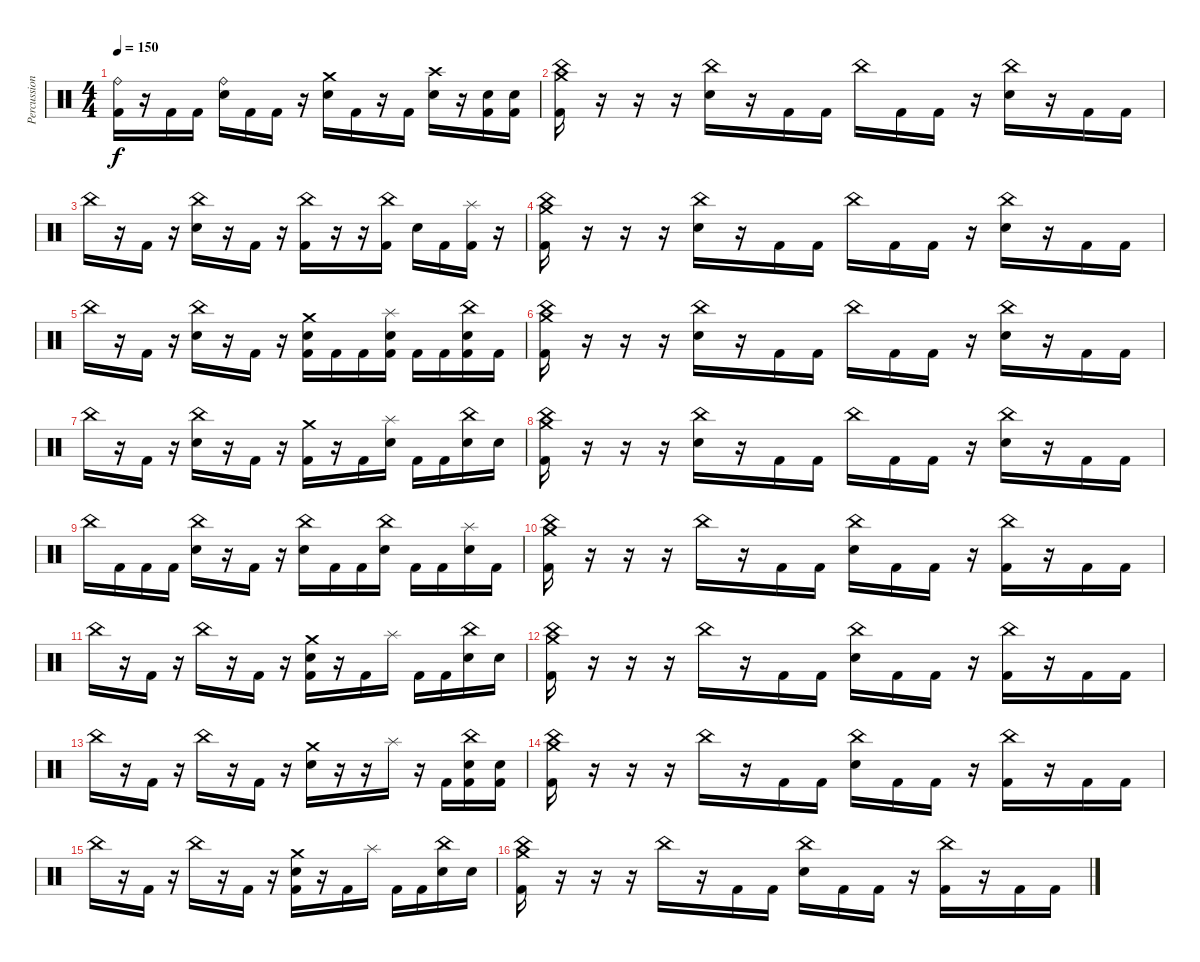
\track ("Percussion" "Percussion") {instrument percussion}
\staff {score}
\articulation defaults
\ts (4 4)
\tempo 150
\clef neutral
\ks c
("Ride (bell)" "Kick (hit) 2").16{dy f} r.16 "Kick (hit) 2".16 "Kick (hit) 2".16 ("Ride (bell)" "Electric Snare (hit)").16 "Kick (hit) 2".16 "Kick (hit) 2".16 r.16 ("Crash medium (hit)" "Electric Snare (hit)").16 "Kick (hit) 2".16 r.16 "Kick (hit) 2".16 ("Crash high (hit)" "Electric Snare (hit)").16 r.16 ("Electric Snare (hit)" "Kick (hit) 2").16 ("Electric Snare (hit)" "Kick (hit) 2").16 |
("China (hit)" "Crash medium (hit)" "Kick (hit) 2").16 r.16 r.16 r.16 ("China (hit)" "Electric Snare (hit)").16 r.16 "Kick (hit) 2".16 "Kick (hit) 2".16 "China (hit)".16 "Kick (hit) 2".16 "Kick (hit) 2".16 r.16 ("China (hit)" "Electric Snare (hit)").16 r.16 "Kick (hit) 2".16 "Kick (hit) 2".16 |
"China (hit)".16 r.16 "Kick (hit) 2".16 r.16 ("China (hit)" "Electric Snare (hit)").16 r.16 "Kick (hit) 2".16 r.16 ("China (hit)" "Kick (hit) 2").16 r.16 r.16 ("China (hit)" "Kick (hit) 2").16 "Electric Snare (hit)".16 "Kick (hit) 2".16 ("Splash (hit)" "Kick (hit) 2").16 r.16 |
("China (hit)" "Crash medium (hit)" "Kick (hit) 2").16 r.16 r.16 r.16 ("China (hit)" "Electric Snare (hit)").16 r.16 "Kick (hit) 2".16 "Kick (hit) 2".16 "China (hit)".16 "Kick (hit) 2".16 "Kick (hit) 2".16 r.16 ("China (hit)" "Electric Snare (hit)").16 r.16 "Kick (hit) 2".16 "Kick (hit) 2".16 |
"China (hit)".16 r.16 "Kick (hit) 2".16 r.16 ("China (hit)" "Electric Snare (hit)").16 r.16 "Kick (hit) 2".16 r.16 ("Crash medium (hit)" "Electric Snare (hit)" "Kick (hit) 2").16 "Kick (hit) 2".16 "Kick (hit) 2".16 ("Splash (hit)" "Electric Snare (hit)" "Kick (hit) 2").16 "Kick (hit) 2".16 "Kick (hit) 2".16 ("China (hit)" "Electric Snare (hit)" "Kick (hit) 2").16 "Kick (hit) 2".16 |
("China (hit)" "Crash medium (hit)" "Kick (hit) 2").16 r.16 r.16 r.16 ("China (hit)" "Electric Snare (hit)").16 r.16 "Kick (hit) 2".16 "Kick (hit) 2".16 "China (hit)".16 "Kick (hit) 2".16 "Kick (hit) 2".16 r.16 ("China (hit)" "Electric Snare (hit)").16 r.16 "Kick (hit) 2".16 "Kick (hit) 2".16 |
"China (hit)".16 r.16 "Kick (hit) 2".16 r.16 ("China (hit)" "Electric Snare (hit)").16 r.16 "Kick (hit) 2".16 r.16 ("Crash medium (hit)" "Kick (hit) 2").16 r.16 "Kick (hit) 2".16 ("Splash (hit)" "Electric Snare (hit)").16 "Kick (hit) 2".16 "Kick (hit) 2".16 ("China (hit)" "Electric Snare (hit)").16 "Electric Snare (hit)".16 |
("China (hit)" "Crash medium (hit)" "Kick (hit) 2").16 r.16 r.16 r.16 ("China (hit)" "Electric Snare (hit)").16 r.16 "Kick (hit) 2".16 "Kick (hit) 2".16 "China (hit)".16 "Kick (hit) 2".16 "Kick (hit) 2".16 r.16 ("China (hit)" "Electric Snare (hit)").16 r.16 "Kick (hit) 2".16 "Kick (hit) 2".16 |
"China (hit)".16 "Kick (hit) 2".16 "Kick (hit) 2".16 "Kick (hit) 2".16 ("China (hit)" "Electric Snare (hit)").16 r.16 "Kick (hit) 2".16 r.16 ("China (hit)" "Electric Snare (hit)").16 "Kick (hit) 2".16 "Kick (hit) 2".16 ("China (hit)" "Electric Snare (hit)").16 "Kick (hit) 2".16 "Kick (hit) 2".16 ("Splash (hit)" "Electric Snare (hit)").16 "Kick (hit) 2".16 |
("China (hit)" "Crash medium (hit)" "Kick (hit) 2").16 r.16 r.16 r.16 "China (hit)".16 r.16 "Kick (hit) 2".16 "Kick (hit) 2".16 ("China (hit)" "Electric Snare (hit)").16 "Kick (hit) 2".16 "Kick (hit) 2".16 r.16 ("China (hit)" "Kick (hit) 2").16 r.16 "Kick (hit) 2".16 "Kick (hit) 2".16 |
"China (hit)".16 r.16 "Kick (hit) 2".16 r.16 "China (hit)".16 r.16 "Kick (hit) 2".16 r.16 ("Crash medium (hit)" "Electric Snare (hit)" "Kick (hit) 2").16 r.16 "Kick (hit) 2".16 "Splash (hit)".16 "Kick (hit) 2".16 "Kick (hit) 2".16 ("China (hit)" "Electric Snare (hit)").16 "Electric Snare (hit)".16 |
("China (hit)" "Crash medium (hit)" "Kick (hit) 2").16 r.16 r.16 r.16 "China (hit)".16 r.16 "Kick (hit) 2".16 "Kick (hit) 2".16 ("China (hit)" "Electric Snare (hit)").16 "Kick (hit) 2".16 "Kick (hit) 2".16 r.16 ("China (hit)" "Kick (hit) 2").16 r.16 "Kick (hit) 2".16 "Kick (hit) 2".16 |
"China (hit)".16 r.16 "Kick (hit) 2".16 r.16 "China (hit)".16 r.16 "Kick (hit) 2".16 r.16 ("Crash medium (hit)" "Electric Snare (hit)").16 r.16 r.16 "Splash (hit)".16 r.16 "Kick (hit) 2".16 ("China (hit)" "Electric Snare (hit)" "Kick (hit) 2").16 ("Electric Snare (hit)" "Kick (hit) 2").16 |
("China (hit)" "Crash medium (hit)" "Kick (hit) 2").16 r.16 r.16 r.16 "China (hit)".16 r.16 "Kick (hit) 2".16 "Kick (hit) 2".16 ("China (hit)" "Electric Snare (hit)").16 "Kick (hit) 2".16 "Kick (hit) 2".16 r.16 ("China (hit)" "Kick (hit) 2").16 r.16 "Kick (hit) 2".16 "Kick (hit) 2".16 |
"China (hit)".16 r.16 "Kick (hit) 2".16 r.16 "China (hit)".16 r.16 "Kick (hit) 2".16 r.16 ("Crash medium (hit)" "Electric Snare (hit)" "Kick (hit) 2").16 r.16 "Kick (hit) 2".16 "Splash (hit)".16 "Kick (hit) 2".16 "Kick (hit) 2".16 ("China (hit)" "Electric Snare (hit)").16 "Electric Snare (hit)".16 |
("China (hit)" "Crash medium (hit)" "Kick (hit) 2").16 r.16 r.16 r.16 "China (hit)".16 r.16 "Kick (hit) 2".16 "Kick (hit) 2".16 ("China (hit)" "Electric Snare (hit)").16 "Kick (hit) 2".16 "Kick (hit) 2".16 r.16 ("China (hit)" "Kick (hit) 2").16 r.16 "Kick (hit) 2".16 "Kick (hit) 2".16
